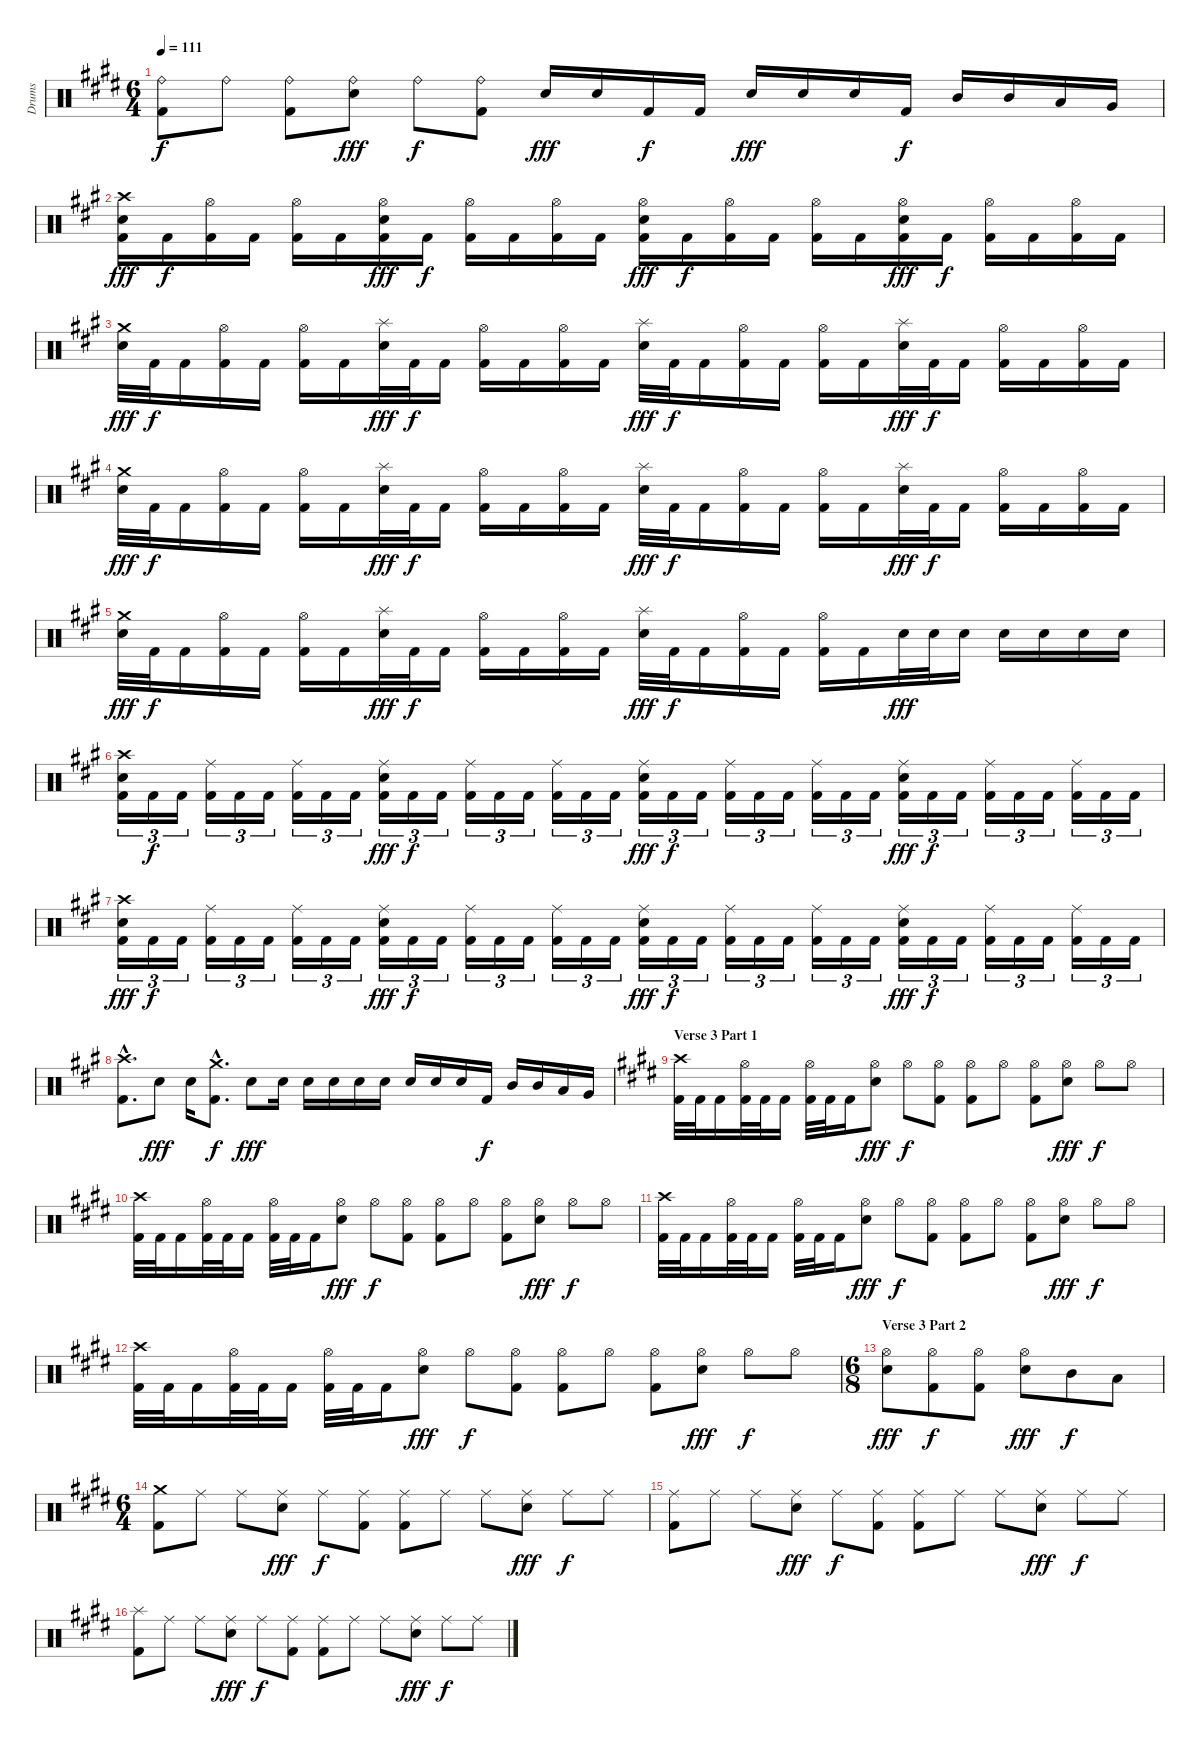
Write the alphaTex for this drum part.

\track ("Drums" "Drums") {instrument percussion}
\staff {score}
\articulation defaults
\ts (6 4)
\tempo 111
\clef neutral
\ks c#minor
("Ride (bell)" "Kick (hit) 2").8{dy f} "Ride (bell)".8 ("Ride (bell)" "Kick (hit) 2").8 ("Ride (bell)" "Snare (hit) 2").8{dy fff} "Ride (bell)".8{dy f} ("Ride (bell)" "Kick (hit) 2").8 "Snare (hit) 2".16{dy fff} "Snare (hit) 2".16 "Kick (hit) 2".16{dy f} "Kick (hit) 2".16 "Snare (hit) 2".16{dy fff} "Snare (hit) 2".16 "Snare (hit) 2".16 "Kick (hit) 2".16{dy f} "Mid Tom (hit)".16 "Mid Tom (hit)".16 "Low Tom (hit)".16 "Very Low Tom (hit)".16 |
\ks f#minor
("Crash high (hit)" "Snare (hit) 2" "Kick (hit) 2").16{dy fff} "Kick (hit) 2".16{dy f} ("Hi-Hat (open)" "Kick (hit) 2").16 "Kick (hit) 2".16 ("Hi-Hat (open)" "Kick (hit) 2").16 "Kick (hit) 2".16 ("Hi-Hat (open)" "Snare (hit) 2" "Kick (hit) 2").16{dy fff} "Kick (hit) 2".16{dy f} ("Hi-Hat (open)" "Kick (hit) 2").16 "Kick (hit) 2".16 ("Hi-Hat (open)" "Kick (hit) 2").16 "Kick (hit) 2".16 ("Hi-Hat (open)" "Snare (hit) 2" "Kick (hit) 2").16{dy fff} "Kick (hit) 2".16{dy f} ("Hi-Hat (open)" "Kick (hit) 2").16 "Kick (hit) 2".16 ("Hi-Hat (open)" "Kick (hit) 2").16 "Kick (hit) 2".16 ("Hi-Hat (open)" "Snare (hit) 2" "Kick (hit) 2").16{dy fff} "Kick (hit) 2".16{dy f} ("Hi-Hat (open)" "Kick (hit) 2").16 "Kick (hit) 2".16 ("Hi-Hat (open)" "Kick (hit) 2").16 "Kick (hit) 2".16 |
("Crash medium (hit)" "Snare (hit) 2").32{dy fff} "Kick (hit) 2".32{dy f} "Kick (hit) 2".16 ("Hi-Hat (open)" "Kick (hit) 2").16 "Kick (hit) 2".16 ("Hi-Hat (open)" "Kick (hit) 2").16 "Kick (hit) 2".16 ("Splash (hit)" "Snare (hit) 2").32{dy fff} "Kick (hit) 2".32{dy f} "Kick (hit) 2".16 ("Hi-Hat (open)" "Kick (hit) 2").16 "Kick (hit) 2".16 ("Hi-Hat (open)" "Kick (hit) 2").16 "Kick (hit) 2".16 ("Splash (hit)" "Snare (hit) 2").32{dy fff} "Kick (hit) 2".32{dy f} "Kick (hit) 2".16 ("Hi-Hat (open)" "Kick (hit) 2").16 "Kick (hit) 2".16 ("Hi-Hat (open)" "Kick (hit) 2").16 "Kick (hit) 2".16 ("Splash (hit)" "Snare (hit) 2").32{dy fff} "Kick (hit) 2".32{dy f} "Kick (hit) 2".16 ("Hi-Hat (open)" "Kick (hit) 2").16 "Kick (hit) 2".16 ("Hi-Hat (open)" "Kick (hit) 2").16 "Kick (hit) 2".16 |
("Crash medium (hit)" "Snare (hit) 2").32{dy fff} "Kick (hit) 2".32{dy f} "Kick (hit) 2".16 ("Hi-Hat (open)" "Kick (hit) 2").16 "Kick (hit) 2".16 ("Hi-Hat (open)" "Kick (hit) 2").16 "Kick (hit) 2".16 ("Splash (hit)" "Snare (hit) 2").32{dy fff} "Kick (hit) 2".32{dy f} "Kick (hit) 2".16 ("Hi-Hat (open)" "Kick (hit) 2").16 "Kick (hit) 2".16 ("Hi-Hat (open)" "Kick (hit) 2").16 "Kick (hit) 2".16 ("Splash (hit)" "Snare (hit) 2").32{dy fff} "Kick (hit) 2".32{dy f} "Kick (hit) 2".16 ("Hi-Hat (open)" "Kick (hit) 2").16 "Kick (hit) 2".16 ("Hi-Hat (open)" "Kick (hit) 2").16 "Kick (hit) 2".16 ("Splash (hit)" "Snare (hit) 2").32{dy fff} "Kick (hit) 2".32{dy f} "Kick (hit) 2".16 ("Hi-Hat (open)" "Kick (hit) 2").16 "Kick (hit) 2".16 ("Hi-Hat (open)" "Kick (hit) 2").16 "Kick (hit) 2".16 |
("Crash medium (hit)" "Snare (hit) 2").32{dy fff} "Kick (hit) 2".32{dy f} "Kick (hit) 2".16 ("Hi-Hat (open)" "Kick (hit) 2").16 "Kick (hit) 2".16 ("Hi-Hat (open)" "Kick (hit) 2").16 "Kick (hit) 2".16 ("Splash (hit)" "Snare (hit) 2").32{dy fff} "Kick (hit) 2".32{dy f} "Kick (hit) 2".16 ("Hi-Hat (open)" "Kick (hit) 2").16 "Kick (hit) 2".16 ("Hi-Hat (open)" "Kick (hit) 2").16 "Kick (hit) 2".16 ("Splash (hit)" "Snare (hit) 2").32{dy fff} "Kick (hit) 2".32{dy f} "Kick (hit) 2".16 ("Hi-Hat (open)" "Kick (hit) 2").16 "Kick (hit) 2".16 ("Hi-Hat (open)" "Kick (hit) 2").16 "Kick (hit) 2".16 "Snare (hit) 2".32{dy fff} "Snare (hit) 2".32 "Snare (hit) 2".16 "Snare (hit) 2".16 "Snare (hit) 2".16 "Snare (hit) 2".16 "Snare (hit) 2".16 |
("Crash high (hit)" "Snare (hit) 2" "Kick (hit) 2").16{tu (3 2)} "Kick (hit) 2".16{tu (3 2) dy f} "Kick (hit) 2".16{tu (3 2)} ("Ride (middle)" "Kick (hit) 2").16{tu (3 2)} "Kick (hit) 2".16{tu (3 2)} "Kick (hit) 2".16{tu (3 2)} ("Ride (middle)" "Kick (hit) 2").16{tu (3 2)} "Kick (hit) 2".16{tu (3 2)} "Kick (hit) 2".16{tu (3 2)} ("Ride (middle)" "Snare (hit) 2" "Kick (hit) 2").16{tu (3 2) dy fff} "Kick (hit) 2".16{tu (3 2) dy f} "Kick (hit) 2".16{tu (3 2)} ("Ride (middle)" "Kick (hit) 2").16{tu (3 2)} "Kick (hit) 2".16{tu (3 2)} "Kick (hit) 2".16{tu (3 2)} ("Ride (middle)" "Kick (hit) 2").16{tu (3 2)} "Kick (hit) 2".16{tu (3 2)} "Kick (hit) 2".16{tu (3 2)} ("Ride (middle)" "Snare (hit) 2" "Kick (hit) 2").16{tu (3 2) dy fff} "Kick (hit) 2".16{tu (3 2) dy f} "Kick (hit) 2".16{tu (3 2)} ("Ride (middle)" "Kick (hit) 2").16{tu (3 2)} "Kick (hit) 2".16{tu (3 2)} "Kick (hit) 2".16{tu (3 2)} ("Ride (middle)" "Kick (hit) 2").16{tu (3 2)} "Kick (hit) 2".16{tu (3 2)} "Kick (hit) 2".16{tu (3 2)} ("Ride (middle)" "Snare (hit) 2" "Kick (hit) 2").16{tu (3 2) dy fff} "Kick (hit) 2".16{tu (3 2) dy f} "Kick (hit) 2".16{tu (3 2)} ("Ride (middle)" "Kick (hit) 2").16{tu (3 2)} "Kick (hit) 2".16{tu (3 2)} "Kick (hit) 2".16{tu (3 2)} ("Ride (middle)" "Kick (hit) 2").16{tu (3 2)} "Kick (hit) 2".16{tu (3 2)} "Kick (hit) 2".16{tu (3 2)} |
("Crash high (hit)" "Snare (hit) 2" "Kick (hit) 2").16{tu (3 2) dy fff} "Kick (hit) 2".16{tu (3 2) dy f} "Kick (hit) 2".16{tu (3 2)} ("Ride (middle)" "Kick (hit) 2").16{tu (3 2)} "Kick (hit) 2".16{tu (3 2)} "Kick (hit) 2".16{tu (3 2)} ("Ride (middle)" "Kick (hit) 2").16{tu (3 2)} "Kick (hit) 2".16{tu (3 2)} "Kick (hit) 2".16{tu (3 2)} ("Ride (middle)" "Snare (hit) 2" "Kick (hit) 2").16{tu (3 2) dy fff} "Kick (hit) 2".16{tu (3 2) dy f} "Kick (hit) 2".16{tu (3 2)} ("Ride (middle)" "Kick (hit) 2").16{tu (3 2)} "Kick (hit) 2".16{tu (3 2)} "Kick (hit) 2".16{tu (3 2)} ("Ride (middle)" "Kick (hit) 2").16{tu (3 2)} "Kick (hit) 2".16{tu (3 2)} "Kick (hit) 2".16{tu (3 2)} ("Ride (middle)" "Snare (hit) 2" "Kick (hit) 2").16{tu (3 2) dy fff} "Kick (hit) 2".16{tu (3 2) dy f} "Kick (hit) 2".16{tu (3 2)} ("Ride (middle)" "Kick (hit) 2").16{tu (3 2)} "Kick (hit) 2".16{tu (3 2)} "Kick (hit) 2".16{tu (3 2)} ("Ride (middle)" "Kick (hit) 2").16{tu (3 2)} "Kick (hit) 2".16{tu (3 2)} "Kick (hit) 2".16{tu (3 2)} ("Ride (middle)" "Snare (hit) 2" "Kick (hit) 2").16{tu (3 2) dy fff} "Kick (hit) 2".16{tu (3 2) dy f} "Kick (hit) 2".16{tu (3 2)} ("Ride (middle)" "Kick (hit) 2").16{tu (3 2)} "Kick (hit) 2".16{tu (3 2)} "Kick (hit) 2".16{tu (3 2)} ("Ride (middle)" "Kick (hit) 2").16{tu (3 2)} "Kick (hit) 2".16{tu (3 2)} "Kick (hit) 2".16{tu (3 2)} |
("Crash high (hit)"{hac} "Kick (hit) 2"{hac}).8{d} "Snare (hit) 2".8{dy fff} "Snare (hit) 2".16 ("Crash medium (hit)"{hac} "Kick (hit) 2"{hac}).8{d dy f} "Snare (hit) 2".8{dy fff} "Snare (hit) 2".16 "Snare (hit) 2".16 "Snare (hit) 2".16 "Snare (hit) 2".16 "Snare (hit) 2".16 "Snare (hit) 2".16 "Snare (hit) 2".16 "Snare (hit) 2".16 "Kick (hit) 2".16{dy f} "Mid Tom (hit)".16 "Mid Tom (hit)".16 "Low Tom (hit)".16 "Very Low Tom (hit)".16 |
\section ("" "Verse 3 Part 1")
\ks c#minor
("Crash high (hit)" "Kick (hit) 2").32 "Kick (hit) 2".32 "Kick (hit) 2".16 ("Hi-Hat (open)" "Kick (hit) 2").32 "Kick (hit) 2".32 "Kick (hit) 2".16 ("Hi-Hat (open)" "Kick (hit) 2").32 "Kick (hit) 2".32 "Kick (hit) 2".16 ("Hi-Hat (open)" "Snare (hit) 2").8{dy fff} "Hi-Hat (open)".8{dy f} ("Hi-Hat (open)" "Kick (hit) 2").8 ("Hi-Hat (open)" "Kick (hit) 2").8 "Hi-Hat (open)".8 ("Hi-Hat (open)" "Kick (hit) 2").8 ("Hi-Hat (open)" "Snare (hit) 2").8{dy fff} "Hi-Hat (open)".8{dy f} "Hi-Hat (open)".8 |
("Crash high (hit)" "Kick (hit) 2").32 "Kick (hit) 2".32 "Kick (hit) 2".16 ("Hi-Hat (open)" "Kick (hit) 2").32 "Kick (hit) 2".32 "Kick (hit) 2".16 ("Hi-Hat (open)" "Kick (hit) 2").32 "Kick (hit) 2".32 "Kick (hit) 2".16 ("Hi-Hat (open)" "Snare (hit) 2").8{dy fff} "Hi-Hat (open)".8{dy f} ("Hi-Hat (open)" "Kick (hit) 2").8 ("Hi-Hat (open)" "Kick (hit) 2").8 "Hi-Hat (open)".8 ("Hi-Hat (open)" "Kick (hit) 2").8 ("Hi-Hat (open)" "Snare (hit) 2").8{dy fff} "Hi-Hat (open)".8{dy f} "Hi-Hat (open)".8 |
("Crash high (hit)" "Kick (hit) 2").32 "Kick (hit) 2".32 "Kick (hit) 2".16 ("Hi-Hat (open)" "Kick (hit) 2").32 "Kick (hit) 2".32 "Kick (hit) 2".16 ("Hi-Hat (open)" "Kick (hit) 2").32 "Kick (hit) 2".32 "Kick (hit) 2".16 ("Hi-Hat (open)" "Snare (hit) 2").8{dy fff} "Hi-Hat (open)".8{dy f} ("Hi-Hat (open)" "Kick (hit) 2").8 ("Hi-Hat (open)" "Kick (hit) 2").8 "Hi-Hat (open)".8 ("Hi-Hat (open)" "Kick (hit) 2").8 ("Hi-Hat (open)" "Snare (hit) 2").8{dy fff} "Hi-Hat (open)".8{dy f} "Hi-Hat (open)".8 |
("Crash high (hit)" "Kick (hit) 2").32 "Kick (hit) 2".32 "Kick (hit) 2".16 ("Hi-Hat (open)" "Kick (hit) 2").32 "Kick (hit) 2".32 "Kick (hit) 2".16 ("Hi-Hat (open)" "Kick (hit) 2").32 "Kick (hit) 2".32 "Kick (hit) 2".16 ("Hi-Hat (open)" "Snare (hit) 2").8{dy fff} "Hi-Hat (open)".8{dy f} ("Hi-Hat (open)" "Kick (hit) 2").8 ("Hi-Hat (open)" "Kick (hit) 2").8 "Hi-Hat (open)".8 ("Hi-Hat (open)" "Kick (hit) 2").8 ("Hi-Hat (open)" "Snare (hit) 2").8{dy fff} "Hi-Hat (open)".8{dy f} "Hi-Hat (open)".8 |
\ts (6 8)
\section ("" "Verse 3 Part 2")
("Hi-Hat (open)" "Snare (hit) 2").8{dy fff} ("Hi-Hat (open)" "Kick (hit) 2").8{dy f} ("Hi-Hat (open)" "Kick (hit) 2").8 ("Hi-Hat (open)" "Snare (hit) 2").8{dy fff} "Mid Tom (hit)".8{dy f} "Low Tom (hit)".8 |
\ts (6 4)
("Crash medium (hit)" "Kick (hit) 2").8 "Ride (middle)".8 "Ride (middle)".8 ("Ride (middle)" "Snare (hit) 2").8{dy fff} "Ride (middle)".8{dy f} ("Ride (middle)" "Kick (hit) 2").8 ("Ride (middle)" "Kick (hit) 2").8 "Ride (middle)".8 "Ride (middle)".8 ("Ride (middle)" "Snare (hit) 2").8{dy fff} "Ride (middle)".8{dy f} "Ride (middle)".8 |
("Ride (middle)" "Kick (hit) 2").8 "Ride (middle)".8 "Ride (middle)".8 ("Ride (middle)" "Snare (hit) 2").8{dy fff} "Ride (middle)".8{dy f} ("Ride (middle)" "Kick (hit) 2").8 ("Ride (middle)" "Kick (hit) 2").8 "Ride (middle)".8 "Ride (middle)".8 ("Ride (middle)" "Snare (hit) 2").8{dy fff} "Ride (middle)".8{dy f} "Ride (middle)".8 |
("Splash (hit)" "Kick (hit) 2").8 "Ride (middle)".8 "Ride (middle)".8 ("Ride (middle)" "Snare (hit) 2").8{dy fff} "Ride (middle)".8{dy f} ("Ride (middle)" "Kick (hit) 2").8 ("Ride (middle)" "Kick (hit) 2").8 "Ride (middle)".8 "Ride (middle)".8 ("Ride (middle)" "Snare (hit) 2").8{dy fff} "Ride (middle)".8{dy f} "Ride (middle)".8
